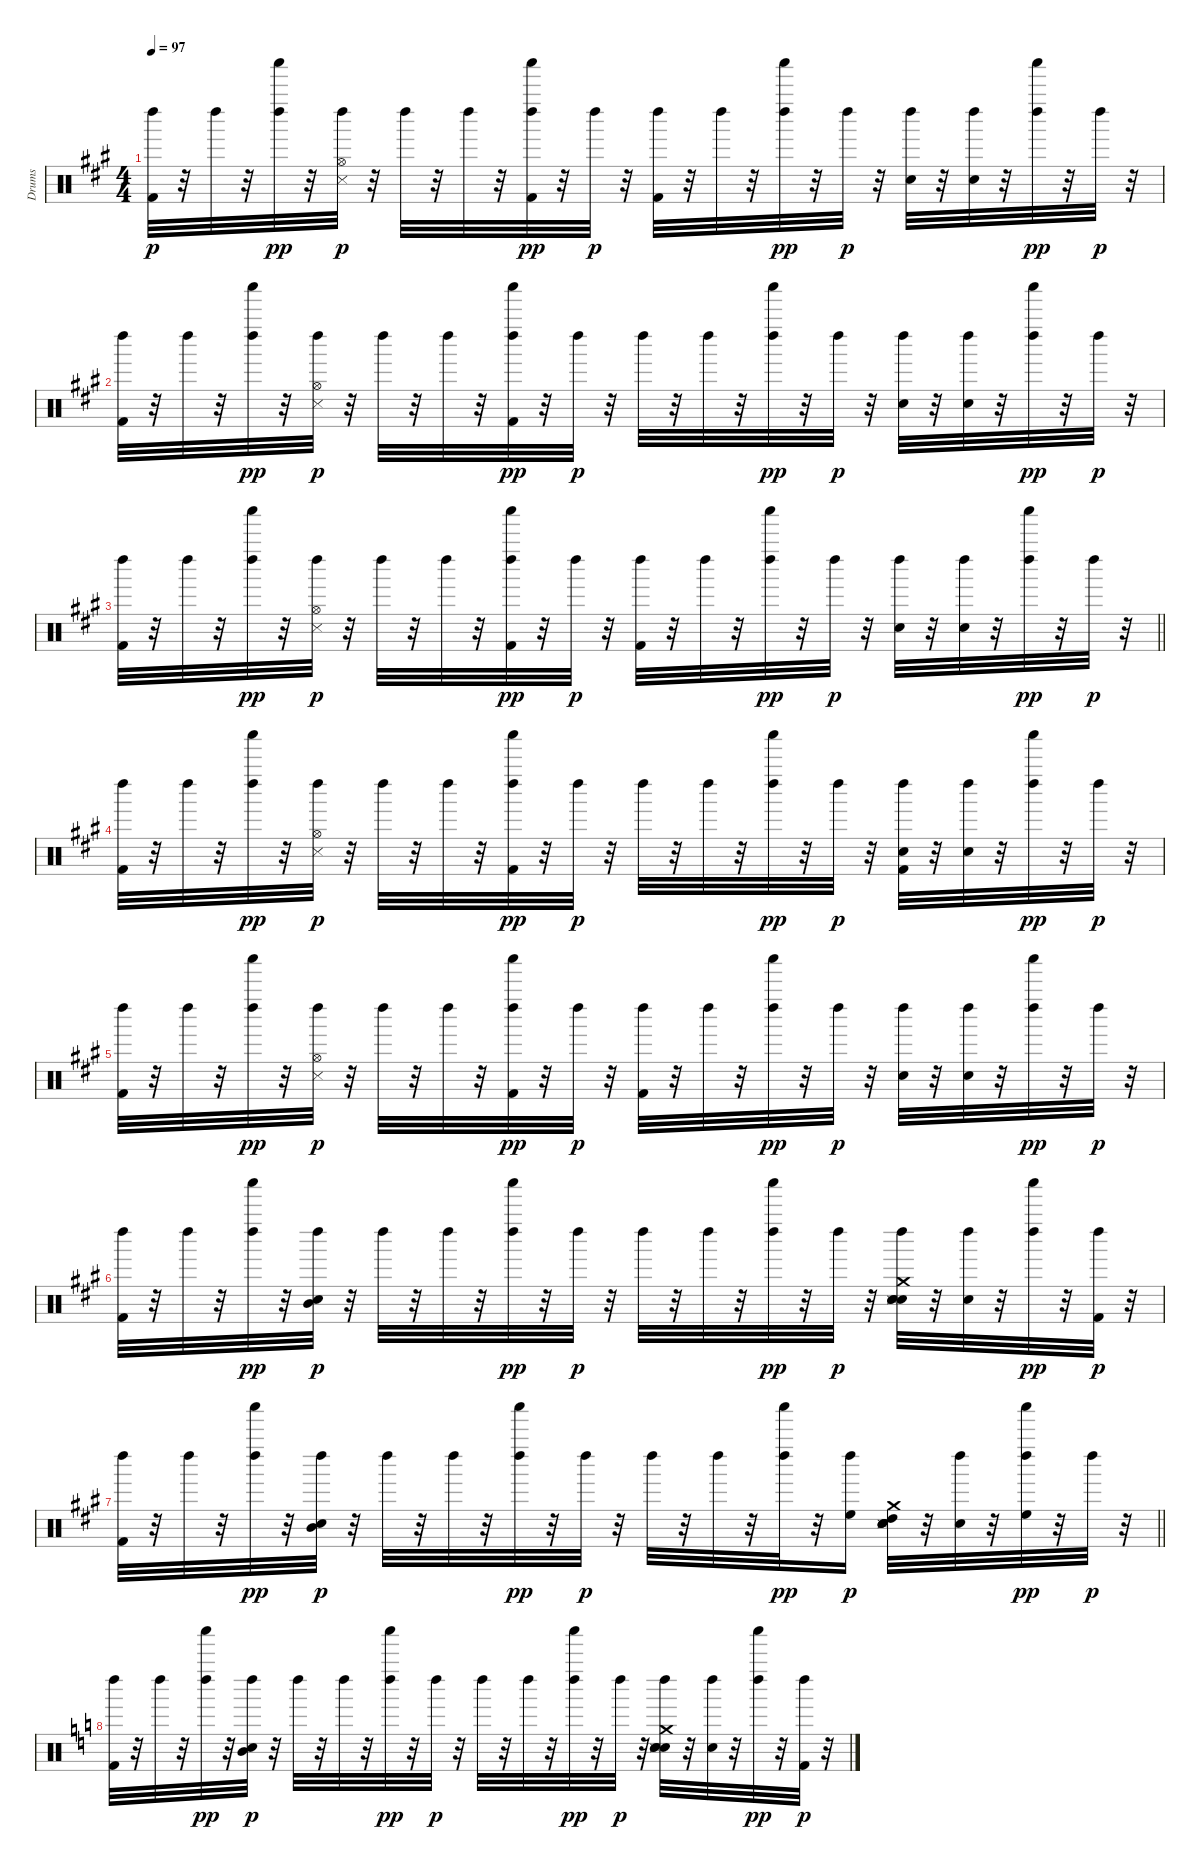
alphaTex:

\track ("Drums" "Drums") {instrument percussion}
\staff {score}
\articulation defaults
\ts (4 4)
\tempo 97
\clef neutral
\ks a
("Kick (hit) 2" "Left Maraca (hit)").32{dy p} r.32 "Left Maraca (hit)".32 r.32 ("Shaker (hit)" "Left Maraca (hit)").32{dy pp} r.32 ("Hi-Hat (open)" "Snare (side stick) 3" "Left Maraca (hit)").32{dy p} r.32 "Left Maraca (hit)".32 r.32 "Left Maraca (hit)".32 r.32 ("Kick (hit) 2" "Shaker (hit)" "Left Maraca (hit)").32{dy pp} r.32 "Left Maraca (hit)".32{dy p} r.32 ("Kick (hit) 2" "Left Maraca (hit)").32 r.32 "Left Maraca (hit)".32 r.32 ("Shaker (hit)" "Left Maraca (hit)").32{dy pp} r.32 "Left Maraca (hit)".32{dy p} r.32 ("Hand Clap (hit)" "Left Maraca (hit)").32 r.32 ("Left Maraca (hit)" "Hand Clap (hit)").32 r.32 ("Shaker (hit)" "Left Maraca (hit)").32{dy pp} r.32 "Left Maraca (hit)".32{dy p} r.32 |
("Kick (hit) 2" "Left Maraca (hit)").32 r.32 "Left Maraca (hit)".32 r.32 ("Shaker (hit)" "Left Maraca (hit)").32{dy pp} r.32 ("Hi-Hat (open)" "Snare (side stick) 3" "Left Maraca (hit)").32{dy p} r.32 "Left Maraca (hit)".32 r.32 "Left Maraca (hit)".32 r.32 ("Kick (hit) 2" "Shaker (hit)" "Left Maraca (hit)").32{dy pp} r.32 "Left Maraca (hit)".32{dy p} r.32 "Left Maraca (hit)".32 r.32 "Left Maraca (hit)".32 r.32 ("Shaker (hit)" "Left Maraca (hit)").32{dy pp} r.32 "Left Maraca (hit)".32{dy p} r.32 ("Hand Clap (hit)" "Left Maraca (hit)").32 r.32 ("Left Maraca (hit)" "Hand Clap (hit)").32 r.32 ("Shaker (hit)" "Left Maraca (hit)").32{dy pp} r.32 "Left Maraca (hit)".32{dy p} r.32 |
\barLineRight lightlight
("Kick (hit) 2" "Left Maraca (hit)").32 r.32 "Left Maraca (hit)".32 r.32 ("Shaker (hit)" "Left Maraca (hit)").32{dy pp} r.32 ("Hi-Hat (open)" "Snare (side stick) 3" "Left Maraca (hit)").32{dy p} r.32 "Left Maraca (hit)".32 r.32 "Left Maraca (hit)".32 r.32 ("Kick (hit) 2" "Shaker (hit)" "Left Maraca (hit)").32{dy pp} r.32 "Left Maraca (hit)".32{dy p} r.32 ("Kick (hit) 2" "Left Maraca (hit)").32 r.32 "Left Maraca (hit)".32 r.32 ("Shaker (hit)" "Left Maraca (hit)").32{dy pp} r.32 "Left Maraca (hit)".32{dy p} r.32 ("Hand Clap (hit)" "Left Maraca (hit)").32 r.32 ("Left Maraca (hit)" "Hand Clap (hit)").32 r.32 ("Shaker (hit)" "Left Maraca (hit)").32{dy pp} r.32 "Left Maraca (hit)".32{dy p} r.32 |
("Kick (hit) 2" "Left Maraca (hit)").32 r.32 "Left Maraca (hit)".32 r.32 ("Shaker (hit)" "Left Maraca (hit)").32{dy pp} r.32 ("Hi-Hat (open)" "Snare (side stick) 3" "Left Maraca (hit)").32{dy p} r.32 "Left Maraca (hit)".32 r.32 "Left Maraca (hit)".32 r.32 ("Kick (hit) 2" "Shaker (hit)" "Left Maraca (hit)").32{dy pp} r.32 "Left Maraca (hit)".32{dy p} r.32 "Left Maraca (hit)".32 r.32 "Left Maraca (hit)".32 r.32 ("Shaker (hit)" "Left Maraca (hit)").32{dy pp} r.32 "Left Maraca (hit)".32{dy p} r.32 ("Kick (hit) 2" "Hand Clap (hit)" "Left Maraca (hit)").32 r.32 ("Left Maraca (hit)" "Hand Clap (hit)").32 r.32 ("Shaker (hit)" "Left Maraca (hit)").32{dy pp} r.32 "Left Maraca (hit)".32{dy p} r.32 |
("Kick (hit) 2" "Left Maraca (hit)").32 r.32 "Left Maraca (hit)".32 r.32 ("Shaker (hit)" "Left Maraca (hit)").32{dy pp} r.32 ("Hi-Hat (open)" "Snare (side stick) 3" "Left Maraca (hit)").32{dy p} r.32 "Left Maraca (hit)".32 r.32 "Left Maraca (hit)".32 r.32 ("Kick (hit) 2" "Shaker (hit)" "Left Maraca (hit)").32{dy pp} r.32 "Left Maraca (hit)".32{dy p} r.32 ("Kick (hit) 2" "Left Maraca (hit)").32 r.32 "Left Maraca (hit)".32 r.32 ("Shaker (hit)" "Left Maraca (hit)").32{dy pp} r.32 "Left Maraca (hit)".32{dy p} r.32 ("Hand Clap (hit)" "Left Maraca (hit)").32 r.32 ("Left Maraca (hit)" "Hand Clap (hit)").32 r.32 ("Shaker (hit)" "Left Maraca (hit)").32{dy pp} r.32 "Left Maraca (hit)".32{dy p} r.32 |
("Left Maraca (hit)" "Kick (hit) 2").32 r.32 "Left Maraca (hit)".32 r.32 ("Shaker (hit)" "Left Maraca (hit)").32{dy pp} r.32 ("Snare (hit) 2" "Mid Tom (hit)" "Left Maraca (hit)").32{dy p} r.32 "Left Maraca (hit)".32 r.32 "Left Maraca (hit)".32 r.32 ("Shaker (hit)" "Left Maraca (hit)").32{dy pp} r.32 "Left Maraca (hit)".32{dy p} r.32 "Left Maraca (hit)".32 r.32 "Left Maraca (hit)".32 r.32 ("Shaker (hit)" "Left Maraca (hit)").32{dy pp} r.32 "Left Maraca (hit)".32{dy p} r.32 ("Snare (hit) 2" "Electric Snare (hit)" "Hand Clap (hit)" "Snare (side stick) 3" "Crash medium (hit)" "Left Maraca (hit)").32 r.32 ("Left Maraca (hit)" "Hand Clap (hit)").32 r.32 ("Shaker (hit)" "Left Maraca (hit)").32{dy pp} r.32 ("Kick (hit) 2" "Left Maraca (hit)").32{dy p} r.32 |
\barLineRight lightlight
("Kick (hit) 2" "Left Maraca (hit)").32 r.32 "Left Maraca (hit)".32 r.32 ("Shaker (hit)" "Left Maraca (hit)").32{dy pp} r.32 ("Snare (hit) 2" "Mid Tom (hit)" "Left Maraca (hit)").32{dy p} r.32 "Left Maraca (hit)".32 r.32 "Left Maraca (hit)".32 r.32 ("Shaker (hit)" "Left Maraca (hit)").32{dy pp} r.32 "Left Maraca (hit)".32{dy p} r.32 "Left Maraca (hit)".32 r.32 "Left Maraca (hit)".32 r.32 ("Shaker (hit)" "Left Maraca (hit)").32{dy pp} r.32 ("High Floor Tom (hit)" "Left Maraca (hit)").16{dy p} ("Snare (hit) 2" "Electric Snare (hit)" "Hand Clap (hit)" "High Tom (hit)" "Snare (side stick) 3" "Crash medium (hit)").32 r.32 ("Left Maraca (hit)" "Hand Clap (hit)").32 r.32 ("High Floor Tom (hit)" "Shaker (hit)" "Left Maraca (hit)").32{dy pp} r.32 "Left Maraca (hit)".32{dy p} r.32 |
\ks c
("Kick (hit) 2" "Left Maraca (hit)").32 r.32 "Left Maraca (hit)".32 r.32 ("Shaker (hit)" "Left Maraca (hit)").32{dy pp} r.32 ("Snare (hit) 2" "Mid Tom (hit)" "Left Maraca (hit)").32{dy p} r.32 "Left Maraca (hit)".32 r.32 "Left Maraca (hit)".32 r.32 ("Shaker (hit)" "Left Maraca (hit)").32{dy pp} r.32 "Left Maraca (hit)".32{dy p} r.32 "Left Maraca (hit)".32 r.32 "Left Maraca (hit)".32 r.32 ("Shaker (hit)" "Left Maraca (hit)").32{dy pp} r.32 "Left Maraca (hit)".32{dy p} r.32 ("Snare (hit) 2" "Electric Snare (hit)" "Hand Clap (hit)" "Snare (side stick) 3" "Crash medium (hit)" "Left Maraca (hit)").32 r.32 ("Left Maraca (hit)" "Hand Clap (hit)").32 r.32 ("Shaker (hit)" "Left Maraca (hit)").32{dy pp} r.32 ("Kick (hit) 2" "Left Maraca (hit)").32{dy p} r.32
